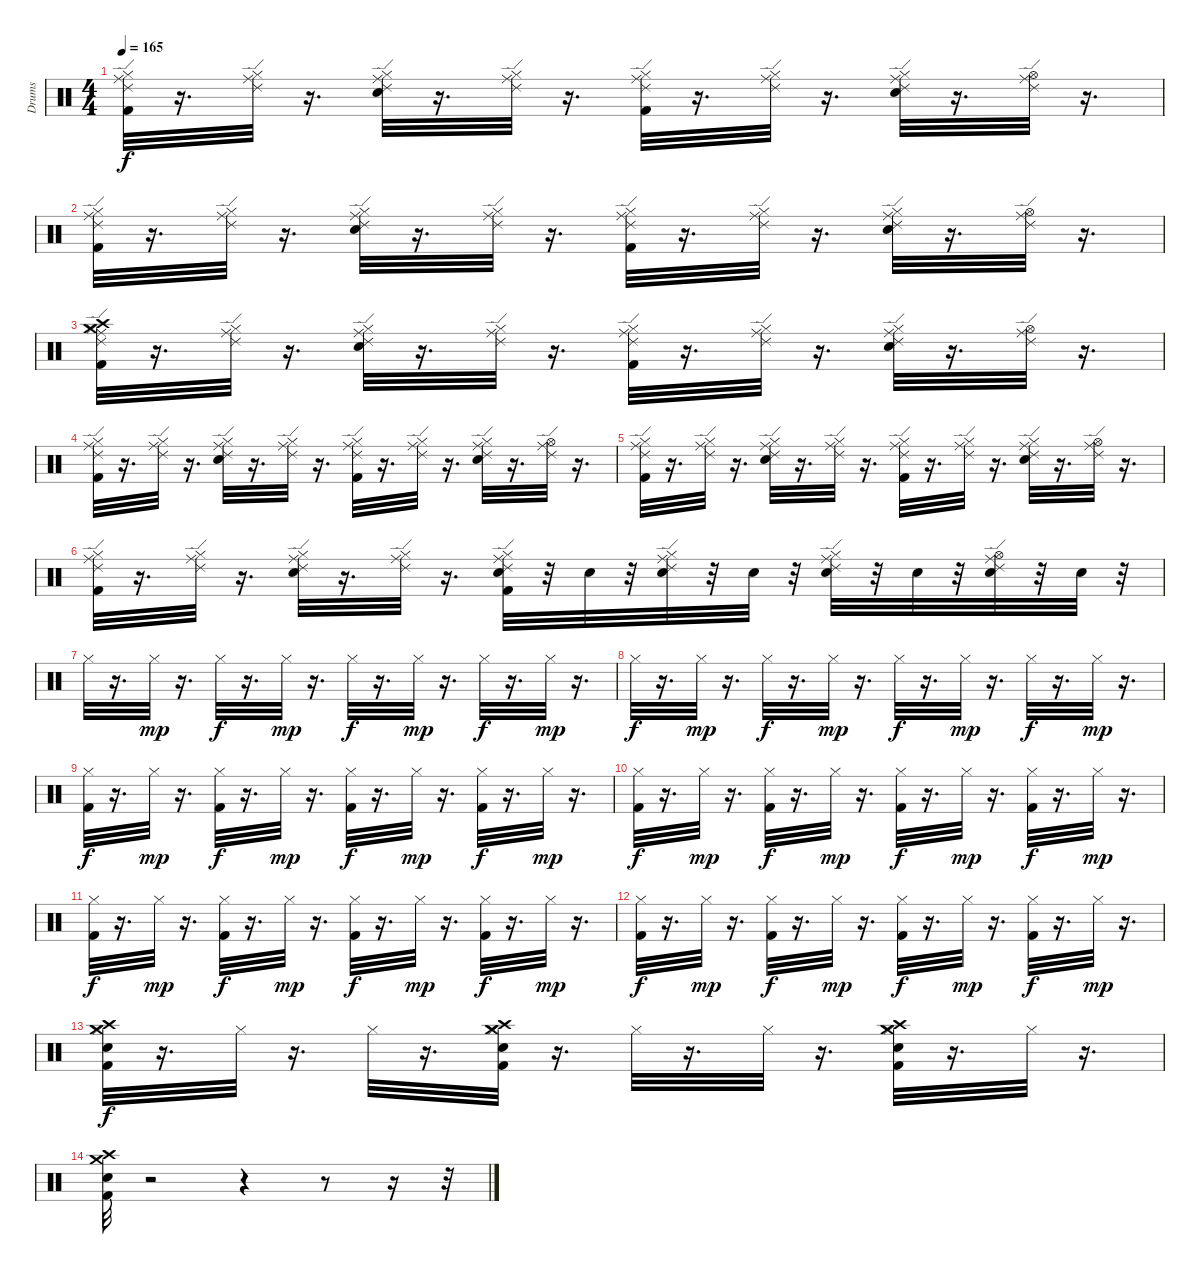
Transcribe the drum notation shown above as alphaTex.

\track ("Drums" "Drums") {instrument percussion}
\staff {score}
\articulation defaults
\ts (4 4)
\tempo 165
\clef neutral
\ks c
("Kick (hit) 2" "Hi-Hat (closed)" "Ride (edge) 2" "Ride (middle)").32{dy f} r.16{d} ("Hi-Hat (closed)" "Ride (edge) 2" "Ride (middle)").32 r.16{d} ("Ride (edge) 2" "Ride (middle)" "Hi-Hat (closed)" "Electric Snare (hit)").32 r.16{d} ("Ride (edge) 2" "Hi-Hat (closed)" "Ride (middle)").32 r.16{d} ("Kick (hit) 2" "Ride (edge) 2" "Ride (middle)" "Hi-Hat (closed)").32 r.16{d} ("Hi-Hat (closed)" "Ride (edge) 2" "Ride (middle)").32 r.16{d} ("Electric Snare (hit)" "Ride (edge) 2" "Ride (middle)" "Hi-Hat (closed)").32 r.16{d} ("Hi-Hat (open)" "Ride (middle)" "Ride (edge) 2").32 r.16{d} |
("Hi-Hat (closed)" "Kick (hit) 2" "Ride (edge) 2" "Ride (middle)").32 r.16{d} ("Ride (middle)" "Hi-Hat (closed)" "Ride (edge) 2").32 r.16{d} ("Electric Snare (hit)" "Hi-Hat (closed)" "Ride (edge) 2" "Ride (middle)").32 r.16{d} ("Ride (edge) 2" "Ride (middle)" "Hi-Hat (closed)").32 r.16{d} ("Ride (middle)" "Kick (hit) 2" "Hi-Hat (closed)" "Ride (edge) 2").32 r.16{d} ("Ride (middle)" "Ride (edge) 2" "Hi-Hat (closed)").32 r.16{d} ("Electric Snare (hit)" "Hi-Hat (closed)" "Ride (middle)" "Ride (edge) 2").32 r.16{d} ("Hi-Hat (open)" "Ride (middle)" "Ride (edge) 2").32 r.16{d} |
("Kick (hit) 2" "Hi-Hat (closed)" "Crash high (hit)" "Crash medium (hit)" "Ride (middle)" "Ride (edge) 2").32 r.16{d} ("Ride (middle)" "Hi-Hat (closed)" "Ride (edge) 2").32 r.16{d} ("Ride (middle)" "Electric Snare (hit)" "Hi-Hat (closed)" "Ride (edge) 2").32 r.16{d} ("Ride (edge) 2" "Ride (middle)" "Hi-Hat (closed)").32 r.16{d} ("Ride (edge) 2" "Kick (hit) 2" "Ride (middle)" "Hi-Hat (closed)").32 r.16{d} ("Ride (edge) 2" "Hi-Hat (closed)" "Ride (middle)").32 r.16{d} ("Hi-Hat (closed)" "Electric Snare (hit)" "Ride (edge) 2" "Ride (middle)").32 r.16{d} ("Ride (edge) 2" "Ride (middle)" "Hi-Hat (open)").32 r.16{d} |
("Ride (edge) 2" "Kick (hit) 2" "Hi-Hat (closed)" "Ride (middle)").32 r.16{d} ("Ride (edge) 2" "Hi-Hat (closed)" "Ride (middle)").32 r.16{d} ("Ride (middle)" "Ride (edge) 2" "Hi-Hat (closed)" "Electric Snare (hit)").32 r.16{d} ("Hi-Hat (closed)" "Ride (middle)" "Ride (edge) 2").32 r.16{d} ("Hi-Hat (closed)" "Kick (hit) 2" "Ride (edge) 2" "Ride (middle)").32 r.16{d} ("Ride (middle)" "Hi-Hat (closed)" "Ride (edge) 2").32 r.16{d} ("Electric Snare (hit)" "Ride (middle)" "Ride (edge) 2" "Hi-Hat (closed)").32 r.16{d} ("Ride (middle)" "Hi-Hat (open)" "Ride (edge) 2").32 r.16{d} |
("Hi-Hat (closed)" "Kick (hit) 2" "Ride (middle)" "Ride (edge) 2").32 r.16{d} ("Ride (middle)" "Ride (edge) 2" "Hi-Hat (closed)").32 r.16{d} ("Ride (edge) 2" "Electric Snare (hit)" "Ride (middle)" "Hi-Hat (closed)").32 r.16{d} ("Ride (edge) 2" "Ride (middle)" "Hi-Hat (closed)").32 r.16{d} ("Hi-Hat (closed)" "Kick (hit) 2" "Ride (edge) 2" "Ride (middle)").32 r.16{d} ("Ride (edge) 2" "Ride (middle)" "Hi-Hat (closed)").32 r.16{d} ("Ride (middle)" "Electric Snare (hit)" "Ride (edge) 2" "Hi-Hat (closed)").32 r.16{d} ("Ride (edge) 2" "Hi-Hat (open)" "Ride (middle)").32 r.16{d} |
("Hi-Hat (closed)" "Ride (edge) 2" "Ride (middle)" "Kick (hit) 2").32 r.16{d} ("Hi-Hat (closed)" "Ride (edge) 2" "Ride (middle)").32 r.16{d} ("Hi-Hat (closed)" "Ride (edge) 2" "Ride (middle)" "Electric Snare (hit)").32 r.16{d} ("Ride (edge) 2" "Hi-Hat (closed)" "Ride (middle)").32 r.16{d} ("Ride (edge) 2" "Kick (hit) 2" "Ride (middle)" "Hi-Hat (closed)" "Electric Snare (hit)").32 r.32 "Electric Snare (hit)".32 r.32 ("Hi-Hat (closed)" "Ride (middle)" "Ride (edge) 2" "Electric Snare (hit)").32 r.32 "Electric Snare (hit)".32 r.32 ("Ride (edge) 2" "Ride (middle)" "Hi-Hat (closed)" "Electric Snare (hit)").32 r.32 "Electric Snare (hit)".32 r.32 ("Hi-Hat (open)" "Electric Snare (hit)" "Ride (middle)" "Ride (edge) 2").32 r.32 "Electric Snare (hit)".32 r.32 |
"Hi-Hat (closed)".32 r.16{d} "Hi-Hat (closed)".32{dy mp} r.16{d} "Hi-Hat (closed)".32{dy f} r.16{d} "Hi-Hat (closed)".32{dy mp} r.16{d} "Hi-Hat (closed)".32{dy f} r.16{d} "Hi-Hat (closed)".32{dy mp} r.16{d} "Hi-Hat (closed)".32{dy f} r.16{d} "Hi-Hat (closed)".32{dy mp} r.16{d} |
"Hi-Hat (closed)".32{dy f} r.16{d} "Hi-Hat (closed)".32{dy mp} r.16{d} "Hi-Hat (closed)".32{dy f} r.16{d} "Hi-Hat (closed)".32{dy mp} r.16{d} "Hi-Hat (closed)".32{dy f} r.16{d} "Hi-Hat (closed)".32{dy mp} r.16{d} "Hi-Hat (closed)".32{dy f} r.16{d} "Hi-Hat (closed)".32{dy mp} r.16{d} |
("Kick (hit) 2" "Hi-Hat (closed)").32{dy f} r.16{d} "Hi-Hat (closed)".32{dy mp} r.16{d} ("Kick (hit) 2" "Hi-Hat (closed)").32{dy f} r.16{d} "Hi-Hat (closed)".32{dy mp} r.16{d} ("Kick (hit) 2" "Hi-Hat (closed)").32{dy f} r.16{d} "Hi-Hat (closed)".32{dy mp} r.16{d} ("Hi-Hat (closed)" "Kick (hit) 2").32{dy f} r.16{d} "Hi-Hat (closed)".32{dy mp} r.16{d} |
("Kick (hit) 2" "Hi-Hat (closed)").32{dy f} r.16{d} "Hi-Hat (closed)".32{dy mp} r.16{d} ("Kick (hit) 2" "Hi-Hat (closed)").32{dy f} r.16{d} "Hi-Hat (closed)".32{dy mp} r.16{d} ("Kick (hit) 2" "Hi-Hat (closed)").32{dy f} r.16{d} "Hi-Hat (closed)".32{dy mp} r.16{d} ("Kick (hit) 2" "Hi-Hat (closed)").32{dy f} r.16{d} "Hi-Hat (closed)".32{dy mp} r.16{d} |
("Kick (hit) 2" "Hi-Hat (closed)").32{dy f} r.16{d} "Hi-Hat (closed)".32{dy mp} r.16{d} ("Kick (hit) 2" "Hi-Hat (closed)").32{dy f} r.16{d} "Hi-Hat (closed)".32{dy mp} r.16{d} ("Kick (hit) 2" "Hi-Hat (closed)").32{dy f} r.16{d} "Hi-Hat (closed)".32{dy mp} r.16{d} ("Hi-Hat (closed)" "Kick (hit) 2").32{dy f} r.16{d} "Hi-Hat (closed)".32{dy mp} r.16{d} |
("Kick (hit) 2" "Hi-Hat (closed)").32{dy f} r.16{d} "Hi-Hat (closed)".32{dy mp} r.16{d} ("Kick (hit) 2" "Hi-Hat (closed)").32{dy f} r.16{d} "Hi-Hat (closed)".32{dy mp} r.16{d} ("Kick (hit) 2" "Hi-Hat (closed)").32{dy f} r.16{d} "Hi-Hat (closed)".32{dy mp} r.16{d} ("Kick (hit) 2" "Hi-Hat (closed)").32{dy f} r.16{d} "Hi-Hat (closed)".32{dy mp} r.16{d} |
("Kick (hit) 2" "Hi-Hat (closed)" "Electric Snare (hit)" "Crash high (hit)" "Crash medium (hit)").32{dy f} r.16{d} "Hi-Hat (closed)".32 r.16{d} "Hi-Hat (closed)".32 r.16{d} ("Kick (hit) 2" "Hi-Hat (closed)" "Electric Snare (hit)" "Crash high (hit)" "Crash medium (hit)").32 r.16{d} "Hi-Hat (closed)".32 r.16{d} "Hi-Hat (closed)".32 r.16{d} ("Kick (hit) 2" "Hi-Hat (closed)" "Electric Snare (hit)" "Crash high (hit)" "Crash medium (hit)").32 r.16{d} "Hi-Hat (closed)".32 r.16{d} |
("Kick (hit) 2" "Electric Snare (hit)" "Crash high (hit)" "Crash medium (hit)").32 r.2 r.4 r.8 r.16 r.32
